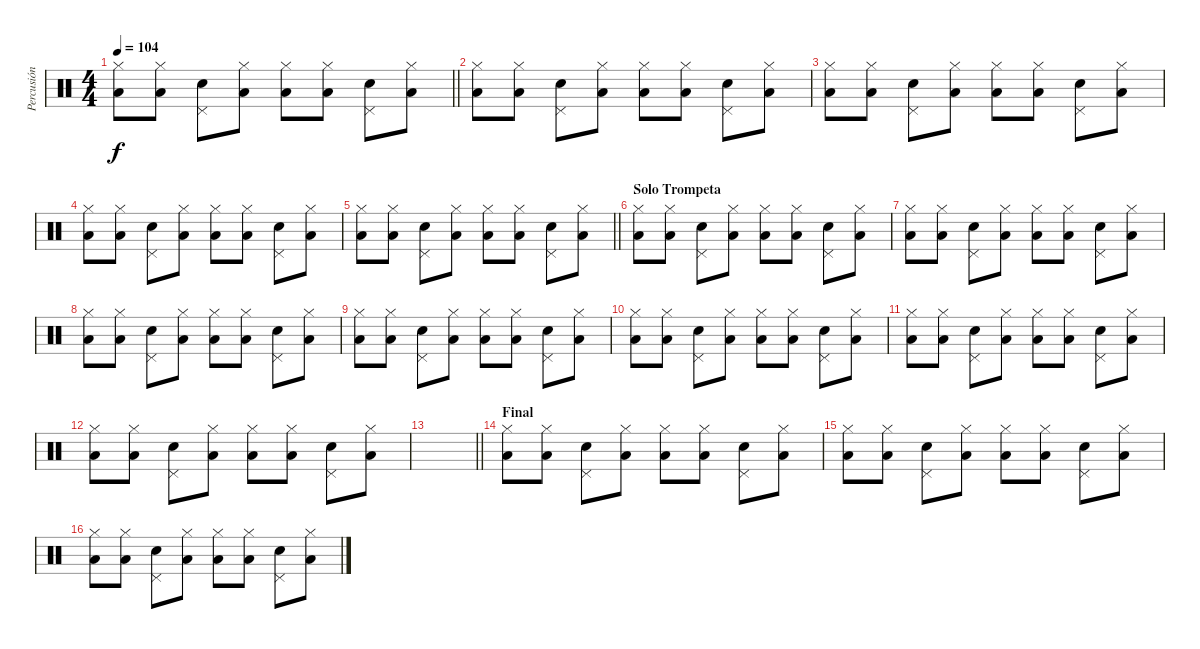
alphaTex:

\track ("Percusión" "Percusión") {instrument percussion}
\staff {score}
\articulation defaults
\ts (4 4)
\tempo 104
\clef neutral
\barLineRight lightlight
\ks c
("Low Floor Tom (hit)" "Hi-Hat (closed)").8{dy f} ("Low Floor Tom (hit)" "Hi-Hat (closed)").8 ("Pedal Hi-Hat (hit)" "Snare (hit) 2").8 ("Low Floor Tom (hit)" "Hi-Hat (closed)").8 ("Low Floor Tom (hit)" "Hi-Hat (closed)").8 ("Low Floor Tom (hit)" "Hi-Hat (closed)").8 ("Pedal Hi-Hat (hit)" "Snare (hit) 2").8 ("Low Floor Tom (hit)" "Hi-Hat (closed)").8 |
("Low Floor Tom (hit)" "Hi-Hat (closed)").8 ("Low Floor Tom (hit)" "Hi-Hat (closed)").8 ("Pedal Hi-Hat (hit)" "Snare (hit) 2").8 ("Low Floor Tom (hit)" "Hi-Hat (closed)").8 ("Low Floor Tom (hit)" "Hi-Hat (closed)").8 ("Low Floor Tom (hit)" "Hi-Hat (closed)").8 ("Pedal Hi-Hat (hit)" "Snare (hit) 2").8 ("Low Floor Tom (hit)" "Hi-Hat (closed)").8 |
("Low Floor Tom (hit)" "Hi-Hat (closed)").8 ("Low Floor Tom (hit)" "Hi-Hat (closed)").8 ("Pedal Hi-Hat (hit)" "Snare (hit) 2").8 ("Low Floor Tom (hit)" "Hi-Hat (closed)").8 ("Low Floor Tom (hit)" "Hi-Hat (closed)").8 ("Low Floor Tom (hit)" "Hi-Hat (closed)").8 ("Pedal Hi-Hat (hit)" "Snare (hit) 2").8 ("Low Floor Tom (hit)" "Hi-Hat (closed)").8 |
("Low Floor Tom (hit)" "Hi-Hat (closed)").8 ("Low Floor Tom (hit)" "Hi-Hat (closed)").8 ("Pedal Hi-Hat (hit)" "Snare (hit) 2").8 ("Low Floor Tom (hit)" "Hi-Hat (closed)").8 ("Low Floor Tom (hit)" "Hi-Hat (closed)").8 ("Low Floor Tom (hit)" "Hi-Hat (closed)").8 ("Pedal Hi-Hat (hit)" "Snare (hit) 2").8 ("Low Floor Tom (hit)" "Hi-Hat (closed)").8 |
\barLineRight lightlight
("Low Floor Tom (hit)" "Hi-Hat (closed)").8 ("Low Floor Tom (hit)" "Hi-Hat (closed)").8 ("Pedal Hi-Hat (hit)" "Snare (hit) 2").8 ("Low Floor Tom (hit)" "Hi-Hat (closed)").8 ("Low Floor Tom (hit)" "Hi-Hat (closed)").8 ("Low Floor Tom (hit)" "Hi-Hat (closed)").8 ("Pedal Hi-Hat (hit)" "Snare (hit) 2").8 ("Low Floor Tom (hit)" "Hi-Hat (closed)").8 |
\section ("" "Solo Trompeta")
("Low Floor Tom (hit)" "Hi-Hat (closed)").8 ("Low Floor Tom (hit)" "Hi-Hat (closed)").8 ("Pedal Hi-Hat (hit)" "Snare (hit) 2").8 ("Low Floor Tom (hit)" "Hi-Hat (closed)").8 ("Low Floor Tom (hit)" "Hi-Hat (closed)").8 ("Low Floor Tom (hit)" "Hi-Hat (closed)").8 ("Pedal Hi-Hat (hit)" "Snare (hit) 2").8 ("Low Floor Tom (hit)" "Hi-Hat (closed)").8 |
("Low Floor Tom (hit)" "Hi-Hat (closed)").8 ("Low Floor Tom (hit)" "Hi-Hat (closed)").8 ("Pedal Hi-Hat (hit)" "Snare (hit) 2").8 ("Low Floor Tom (hit)" "Hi-Hat (closed)").8 ("Low Floor Tom (hit)" "Hi-Hat (closed)").8 ("Low Floor Tom (hit)" "Hi-Hat (closed)").8 ("Pedal Hi-Hat (hit)" "Snare (hit) 2").8 ("Low Floor Tom (hit)" "Hi-Hat (closed)").8 |
("Low Floor Tom (hit)" "Hi-Hat (closed)").8 ("Low Floor Tom (hit)" "Hi-Hat (closed)").8 ("Pedal Hi-Hat (hit)" "Snare (hit) 2").8 ("Low Floor Tom (hit)" "Hi-Hat (closed)").8 ("Low Floor Tom (hit)" "Hi-Hat (closed)").8 ("Low Floor Tom (hit)" "Hi-Hat (closed)").8 ("Pedal Hi-Hat (hit)" "Snare (hit) 2").8 ("Low Floor Tom (hit)" "Hi-Hat (closed)").8 |
("Low Floor Tom (hit)" "Hi-Hat (closed)").8 ("Low Floor Tom (hit)" "Hi-Hat (closed)").8 ("Pedal Hi-Hat (hit)" "Snare (hit) 2").8 ("Low Floor Tom (hit)" "Hi-Hat (closed)").8 ("Low Floor Tom (hit)" "Hi-Hat (closed)").8 ("Low Floor Tom (hit)" "Hi-Hat (closed)").8 ("Pedal Hi-Hat (hit)" "Snare (hit) 2").8 ("Low Floor Tom (hit)" "Hi-Hat (closed)").8 |
("Low Floor Tom (hit)" "Hi-Hat (closed)").8 ("Low Floor Tom (hit)" "Hi-Hat (closed)").8 ("Pedal Hi-Hat (hit)" "Snare (hit) 2").8 ("Low Floor Tom (hit)" "Hi-Hat (closed)").8 ("Low Floor Tom (hit)" "Hi-Hat (closed)").8 ("Low Floor Tom (hit)" "Hi-Hat (closed)").8 ("Pedal Hi-Hat (hit)" "Snare (hit) 2").8 ("Low Floor Tom (hit)" "Hi-Hat (closed)").8 |
("Low Floor Tom (hit)" "Hi-Hat (closed)").8 ("Low Floor Tom (hit)" "Hi-Hat (closed)").8 ("Pedal Hi-Hat (hit)" "Snare (hit) 2").8 ("Low Floor Tom (hit)" "Hi-Hat (closed)").8 ("Low Floor Tom (hit)" "Hi-Hat (closed)").8 ("Low Floor Tom (hit)" "Hi-Hat (closed)").8 ("Pedal Hi-Hat (hit)" "Snare (hit) 2").8 ("Low Floor Tom (hit)" "Hi-Hat (closed)").8 |
("Low Floor Tom (hit)" "Hi-Hat (closed)").8 ("Low Floor Tom (hit)" "Hi-Hat (closed)").8 ("Pedal Hi-Hat (hit)" "Snare (hit) 2").8 ("Low Floor Tom (hit)" "Hi-Hat (closed)").8 ("Low Floor Tom (hit)" "Hi-Hat (closed)").8 ("Low Floor Tom (hit)" "Hi-Hat (closed)").8 ("Pedal Hi-Hat (hit)" "Snare (hit) 2").8 ("Low Floor Tom (hit)" "Hi-Hat (closed)").8 |
\barLineRight lightlight
|
\section ("" "Final")
("Low Floor Tom (hit)" "Hi-Hat (closed)").8 ("Low Floor Tom (hit)" "Hi-Hat (closed)").8 ("Pedal Hi-Hat (hit)" "Snare (hit) 2").8 ("Low Floor Tom (hit)" "Hi-Hat (closed)").8 ("Low Floor Tom (hit)" "Hi-Hat (closed)").8 ("Low Floor Tom (hit)" "Hi-Hat (closed)").8 ("Pedal Hi-Hat (hit)" "Snare (hit) 2").8 ("Low Floor Tom (hit)" "Hi-Hat (closed)").8 |
("Low Floor Tom (hit)" "Hi-Hat (closed)").8 ("Low Floor Tom (hit)" "Hi-Hat (closed)").8 ("Pedal Hi-Hat (hit)" "Snare (hit) 2").8 ("Low Floor Tom (hit)" "Hi-Hat (closed)").8 ("Low Floor Tom (hit)" "Hi-Hat (closed)").8 ("Low Floor Tom (hit)" "Hi-Hat (closed)").8 ("Pedal Hi-Hat (hit)" "Snare (hit) 2").8 ("Low Floor Tom (hit)" "Hi-Hat (closed)").8 |
("Low Floor Tom (hit)" "Hi-Hat (closed)").8 ("Low Floor Tom (hit)" "Hi-Hat (closed)").8 ("Pedal Hi-Hat (hit)" "Snare (hit) 2").8 ("Low Floor Tom (hit)" "Hi-Hat (closed)").8 ("Low Floor Tom (hit)" "Hi-Hat (closed)").8 ("Low Floor Tom (hit)" "Hi-Hat (closed)").8 ("Pedal Hi-Hat (hit)" "Snare (hit) 2").8 ("Low Floor Tom (hit)" "Hi-Hat (closed)").8
